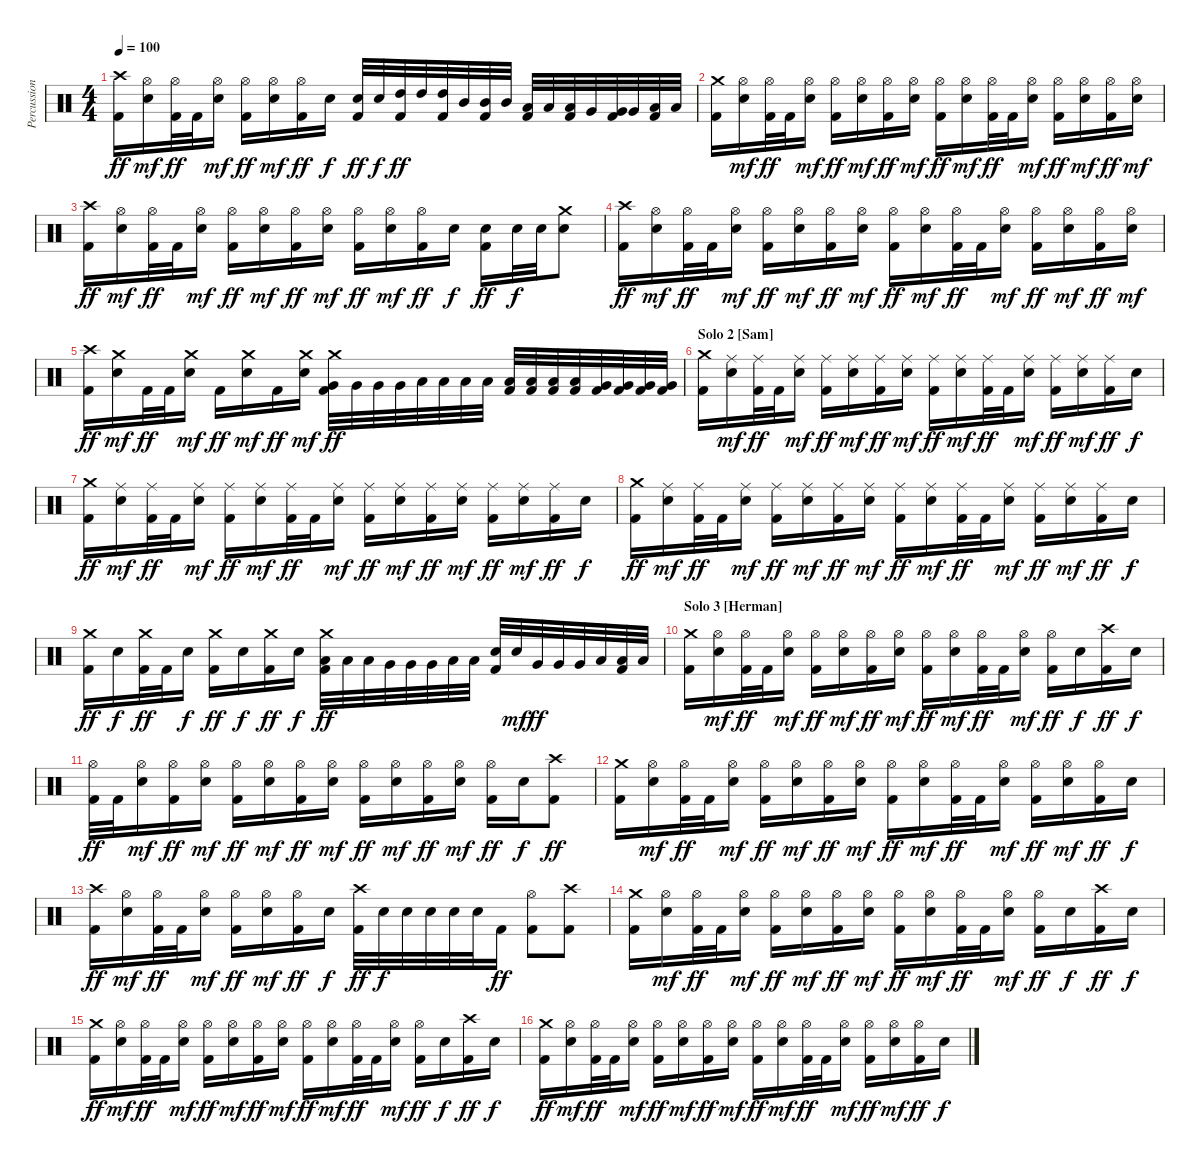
\track ("Percussion" "Percussion") {instrument percussion}
\staff {score}
\articulation defaults
\ts (4 4)
\tempo 100
\clef neutral
\ks c
("Crash high (hit)" "Kick (hit) 2").16{dy ff} ("Hi-Hat (open)" "Snare (hit) 2").16{dy mf} ("Hi-Hat (open)" "Kick (hit) 2").32{dy ff} "Kick (hit) 2".32 ("Hi-Hat (open)" "Snare (hit) 2").16{dy mf} ("Hi-Hat (open)" "Kick (hit) 2").16{dy ff} ("Hi-Hat (open)" "Snare (hit) 2").16{dy mf} ("Hi-Hat (open)" "Kick (hit) 2").16{dy ff} "Snare (hit) 2".16{dy f} ("Snare (hit) 2" "Kick (hit) 2").32{dy ff} "Snare (hit) 2".32{dy f} ("High Tom (hit)" "Kick (hit) 2").32{dy ff} "High Tom (hit)".32 ("High Tom (hit)" "Kick (hit) 2").32 "Mid Tom (hit)".32 ("Mid Tom (hit)" "Kick (hit) 2").32 "Mid Tom (hit)".32 ("Low Tom (hit)" "Kick (hit) 2").32 "Low Tom (hit)".32 ("Low Tom (hit)" "Kick (hit) 2").32 "Very Low Tom (hit)".32 ("Very Low Tom (hit)" "Kick (hit) 2").32 "Very Low Tom (hit)".32 ("Low Floor Tom (hit)" "Kick (hit) 2").32 "Low Floor Tom (hit)".32 |
("Crash medium (hit)" "Kick (hit) 2").16 ("Hi-Hat (open)" "Snare (hit) 2").16{dy mf} ("Hi-Hat (open)" "Kick (hit) 2").32{dy ff} "Kick (hit) 2".32 ("Hi-Hat (open)" "Snare (hit) 2").16{dy mf} ("Hi-Hat (open)" "Kick (hit) 2").16{dy ff} ("Hi-Hat (open)" "Snare (hit) 2").16{dy mf} ("Hi-Hat (open)" "Kick (hit) 2").16{dy ff} ("Hi-Hat (open)" "Snare (hit) 2").16{dy mf} ("Hi-Hat (open)" "Kick (hit) 2").16{dy ff} ("Hi-Hat (open)" "Snare (hit) 2").16{dy mf} ("Hi-Hat (open)" "Kick (hit) 2").32{dy ff} "Kick (hit) 2".32 ("Hi-Hat (open)" "Snare (hit) 2").16{dy mf} ("Hi-Hat (open)" "Kick (hit) 2").16{dy ff} ("Hi-Hat (open)" "Snare (hit) 2").16{dy mf} ("Hi-Hat (open)" "Kick (hit) 2").16{dy ff} ("Hi-Hat (open)" "Snare (hit) 2").16{dy mf} |
("Crash high (hit)" "Kick (hit) 2").16{dy ff} ("Hi-Hat (open)" "Snare (hit) 2").16{dy mf} ("Hi-Hat (open)" "Kick (hit) 2").32{dy ff} "Kick (hit) 2".32 ("Hi-Hat (open)" "Snare (hit) 2").16{dy mf} ("Hi-Hat (open)" "Kick (hit) 2").16{dy ff} ("Hi-Hat (open)" "Snare (hit) 2").16{dy mf} ("Hi-Hat (open)" "Kick (hit) 2").16{dy ff} ("Hi-Hat (open)" "Snare (hit) 2").16{dy mf} ("Hi-Hat (open)" "Kick (hit) 2").16{dy ff} ("Hi-Hat (open)" "Snare (hit) 2").16{dy mf} ("Hi-Hat (open)" "Kick (hit) 2").16{dy ff} "Snare (hit) 2".16{dy f} ("Snare (hit) 2" "Kick (hit) 2").16{dy ff} "Snare (hit) 2".32{dy f} "Snare (hit) 2".32 ("Crash medium (hit)" "Snare (hit) 2").8 |
("Crash high (hit)" "Kick (hit) 2").16{dy ff} ("Hi-Hat (open)" "Snare (hit) 2").16{dy mf} ("Hi-Hat (open)" "Kick (hit) 2").32{dy ff} "Kick (hit) 2".32 ("Hi-Hat (open)" "Snare (hit) 2").16{dy mf} ("Hi-Hat (open)" "Kick (hit) 2").16{dy ff} ("Hi-Hat (open)" "Snare (hit) 2").16{dy mf} ("Hi-Hat (open)" "Kick (hit) 2").16{dy ff} ("Hi-Hat (open)" "Snare (hit) 2").16{dy mf} ("Hi-Hat (open)" "Kick (hit) 2").16{dy ff} ("Hi-Hat (open)" "Snare (hit) 2").16{dy mf} ("Hi-Hat (open)" "Kick (hit) 2").32{dy ff} "Kick (hit) 2".32 ("Hi-Hat (open)" "Snare (hit) 2").16{dy mf} ("Hi-Hat (open)" "Kick (hit) 2").16{dy ff} ("Hi-Hat (open)" "Snare (hit) 2").16{dy mf} ("Hi-Hat (open)" "Kick (hit) 2").16{dy ff} ("Hi-Hat (open)" "Snare (hit) 2").16{dy mf} |
("Crash high (hit)" "Kick (hit) 2").16{dy ff} ("Crash medium (hit)" "Snare (hit) 2").16{dy mf} "Kick (hit) 2".32{dy ff} "Kick (hit) 2".32 ("Crash medium (hit)" "Snare (hit) 2").16{dy mf} "Kick (hit) 2".16{dy ff} ("Crash medium (hit)" "Snare (hit) 2").16{dy mf} "Kick (hit) 2".16{dy ff} ("Crash medium (hit)" "Snare (hit) 2").16{dy mf} ("Crash medium (hit)" "Very Low Tom (hit)" "Kick (hit) 2").32{dy ff} "Very Low Tom (hit)".32 "Very Low Tom (hit)".32 "Very Low Tom (hit)".32 "Low Tom (hit)".32 "Low Tom (hit)".32 "Low Tom (hit)".32 "Low Tom (hit)".32 ("Low Floor Tom (hit)" "Kick (hit) 2").32 ("Low Floor Tom (hit)" "Kick (hit) 2").32 ("Low Floor Tom (hit)" "Kick (hit) 2").32 ("Low Floor Tom (hit)" "Kick (hit) 2").32 ("Very Low Tom (hit)" "Kick (hit) 2").32 ("Very Low Tom (hit)" "Kick (hit) 2").32 ("Very Low Tom (hit)" "Kick (hit) 2").32 ("Very Low Tom (hit)" "Kick (hit) 2").32 |
\section ("" "Solo 2 [Sam]")
("Crash medium (hit)" "Kick (hit) 2").16 ("Ride (middle)" "Snare (hit) 2").16{dy mf} ("Ride (middle)" "Kick (hit) 2").32{dy ff} "Kick (hit) 2".32 ("Ride (middle)" "Snare (hit) 2").16{dy mf} ("Ride (middle)" "Kick (hit) 2").16{dy ff} ("Ride (middle)" "Snare (hit) 2").16{dy mf} ("Ride (middle)" "Kick (hit) 2").16{dy ff} ("Ride (middle)" "Snare (hit) 2").16{dy mf} ("Ride (middle)" "Kick (hit) 2").16{dy ff} ("Ride (middle)" "Snare (hit) 2").16{dy mf} ("Ride (middle)" "Kick (hit) 2").32{dy ff} "Kick (hit) 2".32 ("Ride (middle)" "Snare (hit) 2").16{dy mf} ("Ride (middle)" "Kick (hit) 2").16{dy ff} ("Ride (middle)" "Snare (hit) 2").16{dy mf} ("Ride (middle)" "Kick (hit) 2").16{dy ff} "Snare (hit) 2".16{dy f} |
("Crash medium (hit)" "Kick (hit) 2").16{dy ff} ("Ride (middle)" "Snare (hit) 2").16{dy mf} ("Ride (middle)" "Kick (hit) 2").32{dy ff} "Kick (hit) 2".32 ("Ride (middle)" "Snare (hit) 2").16{dy mf} ("Ride (middle)" "Kick (hit) 2").16{dy ff} ("Ride (middle)" "Snare (hit) 2").16{dy mf} ("Ride (middle)" "Kick (hit) 2").32{dy ff} "Kick (hit) 2".32 ("Ride (middle)" "Snare (hit) 2").16{dy mf} ("Ride (middle)" "Kick (hit) 2").16{dy ff} ("Ride (middle)" "Snare (hit) 2").16{dy mf} ("Ride (middle)" "Kick (hit) 2").16{dy ff} ("Ride (middle)" "Snare (hit) 2").16{dy mf} ("Ride (middle)" "Kick (hit) 2").16{dy ff} ("Ride (middle)" "Snare (hit) 2").16{dy mf} ("Ride (middle)" "Kick (hit) 2").16{dy ff} "Snare (hit) 2".16{dy f} |
("Crash medium (hit)" "Kick (hit) 2").16{dy ff} ("Ride (middle)" "Snare (hit) 2").16{dy mf} ("Ride (middle)" "Kick (hit) 2").32{dy ff} "Kick (hit) 2".32 ("Ride (middle)" "Snare (hit) 2").16{dy mf} ("Ride (middle)" "Kick (hit) 2").16{dy ff} ("Ride (middle)" "Snare (hit) 2").16{dy mf} ("Ride (middle)" "Kick (hit) 2").16{dy ff} ("Ride (middle)" "Snare (hit) 2").16{dy mf} ("Ride (middle)" "Kick (hit) 2").16{dy ff} ("Ride (middle)" "Snare (hit) 2").16{dy mf} ("Ride (middle)" "Kick (hit) 2").32{dy ff} "Kick (hit) 2".32 ("Ride (middle)" "Snare (hit) 2").16{dy mf} ("Ride (middle)" "Kick (hit) 2").16{dy ff} ("Ride (middle)" "Snare (hit) 2").16{dy mf} ("Ride (middle)" "Kick (hit) 2").16{dy ff} "Snare (hit) 2".16{dy f} |
("Crash medium (hit)" "Kick (hit) 2").16{dy ff} "Snare (hit) 2".16{dy f} ("Crash medium (hit)" "Kick (hit) 2").32{dy ff} "Kick (hit) 2".32 "Snare (hit) 2".16{dy f} ("Crash medium (hit)" "Kick (hit) 2").16{dy ff} "Snare (hit) 2".16{dy f} ("Crash medium (hit)" "Kick (hit) 2").16{dy ff} "Snare (hit) 2".16{dy f} ("Crash medium (hit)" "Low Tom (hit)" "Kick (hit) 2").32{dy ff} "Low Tom (hit)".32 "Low Tom (hit)".32 "Very Low Tom (hit)".32 "Very Low Tom (hit)".32 "Very Low Tom (hit)".32 "Low Floor Tom (hit)".32 "Low Floor Tom (hit)".32 ("Snare (hit) 2" "Kick (hit) 2").32 "Snare (hit) 2".32{dy mf} "Very Low Tom (hit)".32{dy ff} "Very Low Tom (hit)".32 "Very Low Tom (hit)".32 "Low Floor Tom (hit)".32 ("Low Floor Tom (hit)" "Kick (hit) 2").32 "Low Floor Tom (hit)".32 |
\section ("" "Solo 3 [Herman]")
("Crash medium (hit)" "Kick (hit) 2").16 ("Hi-Hat (open)" "Snare (hit) 2").16{dy mf} ("Hi-Hat (open)" "Kick (hit) 2").32{dy ff} "Kick (hit) 2".32 ("Hi-Hat (open)" "Snare (hit) 2").16{dy mf} ("Hi-Hat (open)" "Kick (hit) 2").16{dy ff} ("Hi-Hat (open)" "Snare (hit) 2").16{dy mf} ("Hi-Hat (open)" "Kick (hit) 2").16{dy ff} ("Hi-Hat (open)" "Snare (hit) 2").16{dy mf} ("Hi-Hat (open)" "Kick (hit) 2").16{dy ff} ("Hi-Hat (open)" "Snare (hit) 2").16{dy mf} ("Hi-Hat (open)" "Kick (hit) 2").32{dy ff} "Kick (hit) 2".32 ("Hi-Hat (open)" "Snare (hit) 2").16{dy mf} ("Hi-Hat (open)" "Kick (hit) 2").16{dy ff} "Snare (hit) 2".16{dy f} ("Crash high (hit)" "Kick (hit) 2").16{dy ff} "Snare (hit) 2".16{dy f} |
("Hi-Hat (open)" "Kick (hit) 2").32{dy ff} "Kick (hit) 2".32 ("Hi-Hat (open)" "Snare (hit) 2").16{dy mf} ("Hi-Hat (open)" "Kick (hit) 2").16{dy ff} ("Hi-Hat (open)" "Snare (hit) 2").16{dy mf} ("Hi-Hat (open)" "Kick (hit) 2").16{dy ff} ("Hi-Hat (open)" "Snare (hit) 2").16{dy mf} ("Hi-Hat (open)" "Kick (hit) 2").16{dy ff} ("Hi-Hat (open)" "Snare (hit) 2").16{dy mf} ("Hi-Hat (open)" "Kick (hit) 2").16{dy ff} ("Hi-Hat (open)" "Snare (hit) 2").16{dy mf} ("Hi-Hat (open)" "Kick (hit) 2").16{dy ff} ("Hi-Hat (open)" "Snare (hit) 2").16{dy mf} ("Hi-Hat (open)" "Kick (hit) 2").16{dy ff} "Snare (hit) 2".16{dy f} ("Crash high (hit)" "Kick (hit) 2").8{dy ff} |
("Crash medium (hit)" "Kick (hit) 2").16 ("Hi-Hat (open)" "Snare (hit) 2").16{dy mf} ("Hi-Hat (open)" "Kick (hit) 2").32{dy ff} "Kick (hit) 2".32 ("Hi-Hat (open)" "Snare (hit) 2").16{dy mf} ("Hi-Hat (open)" "Kick (hit) 2").16{dy ff} ("Hi-Hat (open)" "Snare (hit) 2").16{dy mf} ("Hi-Hat (open)" "Kick (hit) 2").16{dy ff} ("Hi-Hat (open)" "Snare (hit) 2").16{dy mf} ("Hi-Hat (open)" "Kick (hit) 2").16{dy ff} ("Hi-Hat (open)" "Snare (hit) 2").16{dy mf} ("Hi-Hat (open)" "Kick (hit) 2").32{dy ff} "Kick (hit) 2".32 ("Hi-Hat (open)" "Snare (hit) 2").16{dy mf} ("Hi-Hat (open)" "Kick (hit) 2").16{dy ff} ("Hi-Hat (open)" "Snare (hit) 2").16{dy mf} ("Hi-Hat (open)" "Kick (hit) 2").16{dy ff} "Snare (hit) 2".16{dy f} |
("Crash high (hit)" "Kick (hit) 2").16{dy ff} ("Hi-Hat (open)" "Snare (hit) 2").16{dy mf} ("Hi-Hat (open)" "Kick (hit) 2").32{dy ff} "Kick (hit) 2".32 ("Hi-Hat (open)" "Snare (hit) 2").16{dy mf} ("Hi-Hat (open)" "Kick (hit) 2").16{dy ff} ("Hi-Hat (open)" "Snare (hit) 2").16{dy mf} ("Hi-Hat (open)" "Kick (hit) 2").16{dy ff} "Snare (hit) 2".16{dy f} ("Crash high (hit)" "Kick (hit) 2").32{dy ff} "Snare (hit) 2".32{dy f} "Snare (hit) 2".32 "Snare (hit) 2".32 "Snare (hit) 2".32 "Snare (hit) 2".32 "Kick (hit) 2".16{dy ff} ("Hi-Hat (open)" "Kick (hit) 2").8 ("Crash high (hit)" "Kick (hit) 2").8 |
("Crash medium (hit)" "Kick (hit) 2").16 ("Hi-Hat (open)" "Snare (hit) 2").16{dy mf} ("Hi-Hat (open)" "Kick (hit) 2").32{dy ff} "Kick (hit) 2".32 ("Hi-Hat (open)" "Snare (hit) 2").16{dy mf} ("Hi-Hat (open)" "Kick (hit) 2").16{dy ff} ("Hi-Hat (open)" "Snare (hit) 2").16{dy mf} ("Hi-Hat (open)" "Kick (hit) 2").16{dy ff} ("Hi-Hat (open)" "Snare (hit) 2").16{dy mf} ("Hi-Hat (open)" "Kick (hit) 2").16{dy ff} ("Hi-Hat (open)" "Snare (hit) 2").16{dy mf} ("Hi-Hat (open)" "Kick (hit) 2").32{dy ff} "Kick (hit) 2".32 ("Hi-Hat (open)" "Snare (hit) 2").16{dy mf} ("Hi-Hat (open)" "Kick (hit) 2").16{dy ff} "Snare (hit) 2".16{dy f} ("Crash high (hit)" "Kick (hit) 2").16{dy ff} "Snare (hit) 2".16{dy f} |
("Crash medium (hit)" "Kick (hit) 2").16{dy ff} ("Hi-Hat (open)" "Snare (hit) 2").16{dy mf} ("Hi-Hat (open)" "Kick (hit) 2").32{dy ff} "Kick (hit) 2".32 ("Hi-Hat (open)" "Snare (hit) 2").16{dy mf} ("Hi-Hat (open)" "Kick (hit) 2").16{dy ff} ("Hi-Hat (open)" "Snare (hit) 2").16{dy mf} ("Hi-Hat (open)" "Kick (hit) 2").16{dy ff} ("Hi-Hat (open)" "Snare (hit) 2").16{dy mf} ("Hi-Hat (open)" "Kick (hit) 2").16{dy ff} ("Hi-Hat (open)" "Snare (hit) 2").16{dy mf} ("Hi-Hat (open)" "Kick (hit) 2").32{dy ff} "Kick (hit) 2".32 ("Hi-Hat (open)" "Snare (hit) 2").16{dy mf} ("Hi-Hat (open)" "Kick (hit) 2").16{dy ff} "Snare (hit) 2".16{dy f} ("Crash high (hit)" "Kick (hit) 2").16{dy ff} "Snare (hit) 2".16{dy f} |
("Crash medium (hit)" "Kick (hit) 2").16{dy ff} ("Hi-Hat (open)" "Snare (hit) 2").16{dy mf} ("Hi-Hat (open)" "Kick (hit) 2").32{dy ff} "Kick (hit) 2".32 ("Hi-Hat (open)" "Snare (hit) 2").16{dy mf} ("Hi-Hat (open)" "Kick (hit) 2").16{dy ff} ("Hi-Hat (open)" "Snare (hit) 2").16{dy mf} ("Hi-Hat (open)" "Kick (hit) 2").16{dy ff} ("Hi-Hat (open)" "Snare (hit) 2").16{dy mf} ("Hi-Hat (open)" "Kick (hit) 2").16{dy ff} ("Hi-Hat (open)" "Snare (hit) 2").16{dy mf} ("Hi-Hat (open)" "Kick (hit) 2").32{dy ff} "Kick (hit) 2".32 ("Hi-Hat (open)" "Snare (hit) 2").16{dy mf} ("Hi-Hat (open)" "Kick (hit) 2").16{dy ff} ("Hi-Hat (open)" "Snare (hit) 2").16{dy mf} ("Hi-Hat (open)" "Kick (hit) 2").16{dy ff} "Snare (hit) 2".16{dy f}
